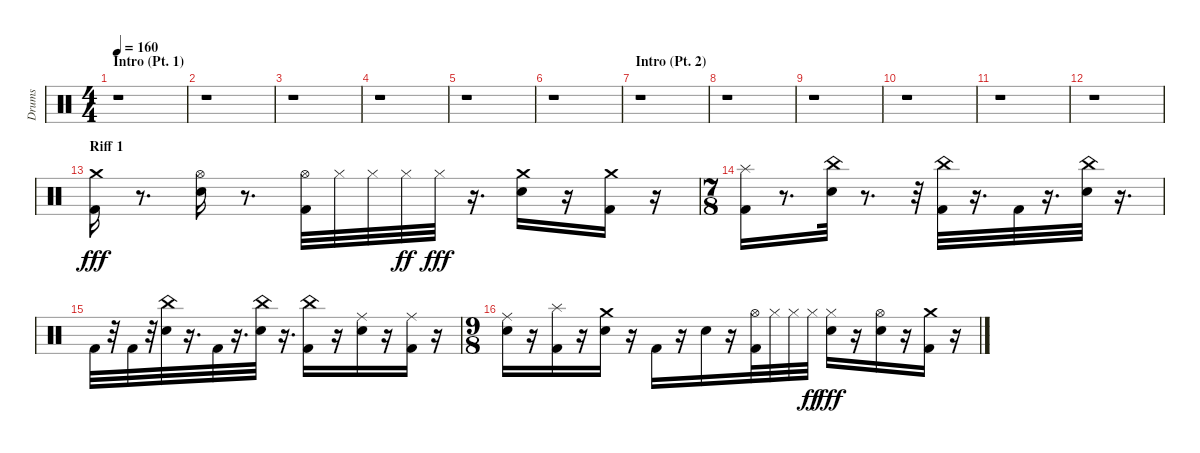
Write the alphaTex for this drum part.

\track ("Drums" "Drums") {instrument percussion}
\staff {score}
\articulation defaults
\ts (4 4)
\section ("" "Intro (Pt. 1)")
\tempo 160
\clef neutral
\ks c
r.1{dy fff} |
r.1 |
r.1 |
r.1 |
r.1 |
r.1 |
\section ("" "Intro (Pt. 2)")
r.1 |
r.1 |
r.1 |
r.1 |
r.1 |
r.1 |
\section ("" "Riff 1")
("Kick (hit) 2" "Crash medium (hit)").16 r.8{d} ("Snare (hit) 2" "Hi-Hat (open)").16 r.8{d} ("Kick (hit) 2" "Hi-Hat (open)").32 "Hi-Hat (closed)".32 "Hi-Hat (closed)".32 "Hi-Hat (closed)".32{dy ff} "Hi-Hat (closed)".32{dy fff} r.16{d} ("Snare (hit) 2" "Crash medium (hit)").16 r.16 ("Kick (hit) 2" "Crash medium (hit)").16 r.16 |
\ts (7 8)
("Kick (hit) 2" "Splash (hit)").16 r.8{d} ("Snare (hit) 2" "China (hit)").32 r.8{d} r.32 ("Kick (hit) 2" "China (hit)").32 r.16{d} "Kick (hit) 2".32 r.16{d} ("Snare (hit) 2" "China (hit)").32 r.16{d} |
"Kick (hit) 2".32 r.32 "Kick (hit) 2".32 r.32 ("Snare (hit) 2" "China (hit)").32 r.16{d} "Kick (hit) 2".32 r.16{d} ("Snare (hit) 2" "China (hit)").32 r.16{d} ("Kick (hit) 2" "China (hit)").16 r.16 ("Snare (hit) 2" "Ride (middle)").16 r.16 ("Kick (hit) 2" "Ride (middle)").16 r.16 |
\ts (9 8)
("Snare (hit) 2" "Ride (middle)").16 r.16 ("Kick (hit) 2" "Splash (hit)").16 r.16 ("Snare (hit) 2" "Crash medium (hit)").16 r.16 "Kick (hit) 2".16 r.16 "Snare (hit) 2".16 r.16 ("Kick (hit) 2" "Hi-Hat (open)").32 "Hi-Hat (closed)".32 "Hi-Hat (closed)".32 "Hi-Hat (closed)".32{dy ff} ("Snare (hit) 2" "Hi-Hat (closed)").16{dy fff} r.16 ("Snare (hit) 2" "Hi-Hat (open)").16 r.16 ("Kick (hit) 2" "Crash medium (hit)").16 r.16
